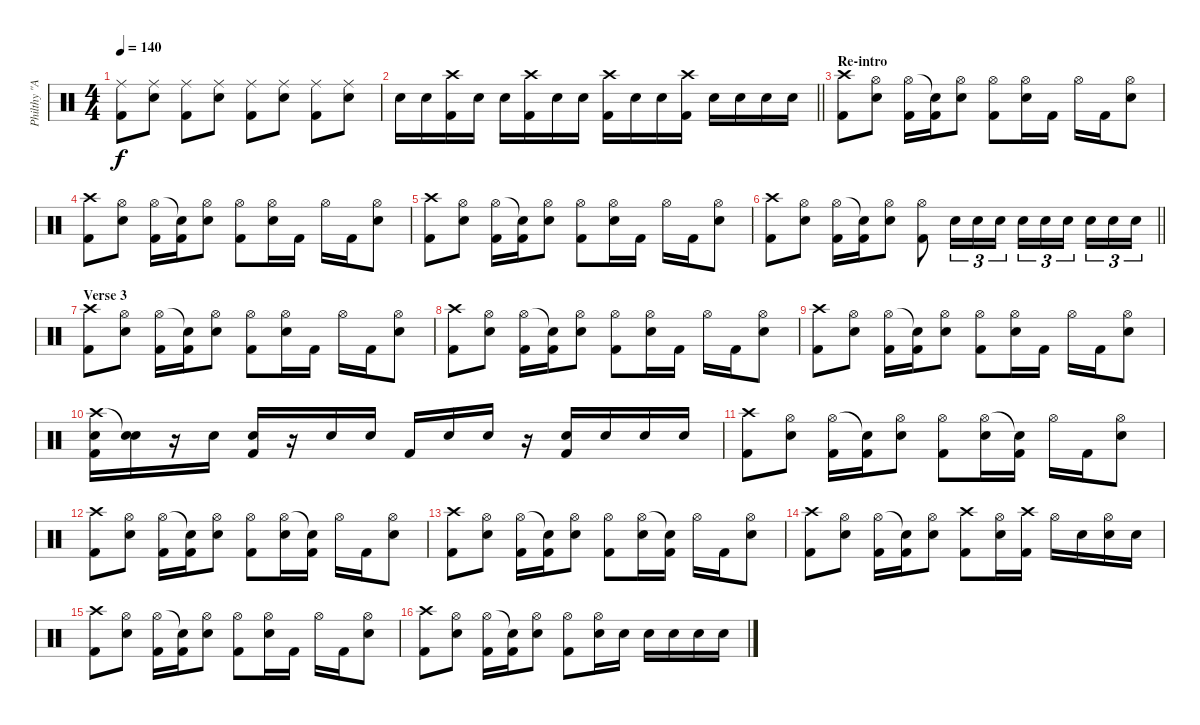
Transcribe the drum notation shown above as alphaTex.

\track ("Philthy \"Animal\" Taylor (drums)" "Philthy \"A") {instrument percussion}
\staff {score}
\articulation defaults
\ts (4 4)
\tempo 140
\clef neutral
\ks c
("Ride (middle)" "Kick (hit) 2").8{dy f} ("Ride (middle)" "Electric Snare (hit)").8 ("Ride (middle)" "Kick (hit) 2").8 ("Ride (middle)" "Electric Snare (hit)").8 ("Ride (middle)" "Kick (hit) 2").8 ("Ride (middle)" "Electric Snare (hit)").8 ("Ride (middle)" "Kick (hit) 2").8 ("Ride (middle)" "Electric Snare (hit)").8 |
\barLineRight lightlight "Electric Snare (hit)".16 "Electric Snare (hit)".16
("Crash high (hit)" "Kick (hit) 2").16 "Electric Snare (hit)".16 "Electric Snare (hit)".16 ("Crash high (hit)" "Kick (hit) 2").16 "Electric Snare (hit)".16 "Electric Snare (hit)".16 ("Crash high (hit)" "Kick (hit) 2").16 "Electric Snare (hit)".16 "Electric Snare (hit)".16 ("Crash high (hit)" "Kick (hit) 2").16 "Electric Snare (hit)".16 "Electric Snare (hit)".16 "Electric Snare (hit)".16 "Electric Snare (hit)".16 |
\section ("" "Re-intro")
("Crash high (hit)" "Kick (hit) 2").8 ("Hi-Hat (open)" "Electric Snare (hit)").8 ("Hi-Hat (open)" "Kick (hit) 2").16 ("Snare (hit)"{t} "Kick (hit) 2").16 ("Hi-Hat (open)" "Electric Snare (hit)").8 ("Hi-Hat (open)" "Kick (hit) 2").8 ("Hi-Hat (open)" "Electric Snare (hit)").16 "Kick (hit) 2".16 "Hi-Hat (open)".16 "Kick (hit) 2".16 ("Hi-Hat (open)" "Electric Snare (hit)").8 |
("Crash high (hit)" "Kick (hit) 2").8 ("Hi-Hat (open)" "Electric Snare (hit)").8 ("Hi-Hat (open)" "Kick (hit) 2").16 ("Snare (hit)"{t} "Kick (hit) 2").16 ("Hi-Hat (open)" "Electric Snare (hit)").8 ("Hi-Hat (open)" "Kick (hit) 2").8 ("Hi-Hat (open)" "Electric Snare (hit)").16 "Kick (hit) 2".16 "Hi-Hat (open)".16 "Kick (hit) 2".16 ("Hi-Hat (open)" "Electric Snare (hit)").8 |
("Crash high (hit)" "Kick (hit) 2").8 ("Hi-Hat (open)" "Electric Snare (hit)").8 ("Hi-Hat (open)" "Kick (hit) 2").16 ("Snare (hit)"{t} "Kick (hit) 2").16 ("Hi-Hat (open)" "Electric Snare (hit)").8 ("Hi-Hat (open)" "Kick (hit) 2").8 ("Hi-Hat (open)" "Electric Snare (hit)").16 "Kick (hit) 2".16 "Hi-Hat (open)".16 "Kick (hit) 2".16 ("Hi-Hat (open)" "Electric Snare (hit)").8 |
\barLineRight lightlight
("Crash high (hit)" "Kick (hit) 2").8 ("Hi-Hat (open)" "Electric Snare (hit)").8 ("Hi-Hat (open)" "Kick (hit) 2").16 ("Snare (hit)"{t} "Kick (hit) 2").16 ("Hi-Hat (open)" "Electric Snare (hit)").8 ("Hi-Hat (open)" "Kick (hit) 2").8 "Electric Snare (hit)".16{tu (3 2)} "Electric Snare (hit)".16{tu (3 2)} "Electric Snare (hit)".16{tu (3 2)} "Electric Snare (hit)".16{tu (3 2)} "Electric Snare (hit)".16{tu (3 2)} "Electric Snare (hit)".16{tu (3 2) beam splitsecondary} "Electric Snare (hit)".16{tu (3 2)} "Electric Snare (hit)".16{tu (3 2)} "Electric Snare (hit)".16{tu (3 2)} |
\section ("" "Verse 3")
("Crash high (hit)" "Kick (hit) 2").8 ("Hi-Hat (open)" "Electric Snare (hit)").8 ("Hi-Hat (open)" "Kick (hit) 2").16 ("Snare (hit)"{t} "Kick (hit) 2").16 ("Hi-Hat (open)" "Electric Snare (hit)").8 ("Hi-Hat (open)" "Kick (hit) 2").8 ("Hi-Hat (open)" "Electric Snare (hit)").16 "Kick (hit) 2".16 "Hi-Hat (open)".16 "Kick (hit) 2".16 ("Hi-Hat (open)" "Electric Snare (hit)").8 |
("Crash high (hit)" "Kick (hit) 2").8 ("Hi-Hat (open)" "Electric Snare (hit)").8 ("Hi-Hat (open)" "Kick (hit) 2").16 ("Snare (hit)"{t} "Kick (hit) 2").16 ("Hi-Hat (open)" "Electric Snare (hit)").8 ("Hi-Hat (open)" "Kick (hit) 2").8 ("Hi-Hat (open)" "Electric Snare (hit)").16 "Kick (hit) 2".16 "Hi-Hat (open)".16 "Kick (hit) 2".16 ("Hi-Hat (open)" "Electric Snare (hit)").8 |
("Crash high (hit)" "Kick (hit) 2").8 ("Hi-Hat (open)" "Electric Snare (hit)").8 ("Hi-Hat (open)" "Kick (hit) 2").16 ("Snare (hit)"{t} "Kick (hit) 2").16 ("Hi-Hat (open)" "Electric Snare (hit)").8 ("Hi-Hat (open)" "Kick (hit) 2").8 ("Hi-Hat (open)" "Electric Snare (hit)").16 "Kick (hit) 2".16 "Hi-Hat (open)".16 "Kick (hit) 2".16 ("Hi-Hat (open)" "Electric Snare (hit)").8 |
("Crash high (hit)" "Electric Snare (hit)" "Kick (hit) 2").16 ("Snare (hit)"{t} "Electric Snare (hit)").16 r.16 "Electric Snare (hit)".16 ("Electric Snare (hit)" "Kick (hit) 2").16 r.16 "Electric Snare (hit)".16 "Electric Snare (hit)".16 "Kick (hit) 2".16 "Electric Snare (hit)".16 "Electric Snare (hit)".16 r.16 ("Electric Snare (hit)" "Kick (hit) 2").16 "Electric Snare (hit)".16 "Electric Snare (hit)".16 "Electric Snare (hit)".16 |
("Crash high (hit)" "Kick (hit) 2").8 ("Hi-Hat (open)" "Electric Snare (hit)").8 ("Hi-Hat (open)" "Kick (hit) 2").16 ("Snare (hit)"{t} "Kick (hit) 2").16 ("Hi-Hat (open)" "Electric Snare (hit)").8 ("Hi-Hat (open)" "Kick (hit) 2").8 ("Hi-Hat (open)" "Electric Snare (hit)").16 ("Snare (hit)"{t} "Kick (hit) 2").16 "Hi-Hat (open)".16 "Kick (hit) 2".16 ("Hi-Hat (open)" "Electric Snare (hit)").8 |
("Crash high (hit)" "Kick (hit) 2").8 ("Hi-Hat (open)" "Electric Snare (hit)").8 ("Hi-Hat (open)" "Kick (hit) 2").16 ("Snare (hit)"{t} "Kick (hit) 2").16 ("Hi-Hat (open)" "Electric Snare (hit)").8 ("Hi-Hat (open)" "Kick (hit) 2").8 ("Hi-Hat (open)" "Electric Snare (hit)").16 ("Snare (hit)"{t} "Kick (hit) 2").16 "Hi-Hat (open)".16 "Kick (hit) 2".16 ("Hi-Hat (open)" "Electric Snare (hit)").8 |
("Crash high (hit)" "Kick (hit) 2").8 ("Hi-Hat (open)" "Electric Snare (hit)").8 ("Hi-Hat (open)" "Kick (hit) 2").16 ("Snare (hit)"{t} "Kick (hit) 2").16 ("Hi-Hat (open)" "Electric Snare (hit)").8 ("Hi-Hat (open)" "Kick (hit) 2").8 ("Hi-Hat (open)" "Electric Snare (hit)").16 ("Snare (hit)"{t} "Kick (hit) 2").16 "Hi-Hat (open)".16 "Kick (hit) 2".16 ("Hi-Hat (open)" "Electric Snare (hit)").8 |
("Crash high (hit)" "Kick (hit) 2").8 ("Hi-Hat (open)" "Electric Snare (hit)").8 ("Hi-Hat (open)" "Kick (hit) 2").16 ("Snare (hit)"{t} "Kick (hit) 2").16 ("Hi-Hat (open)" "Electric Snare (hit)").8 ("Crash high (hit)" "Kick (hit) 2").8 ("Hi-Hat (open)" "Electric Snare (hit)").16 ("Crash high (hit)" "Kick (hit) 2").16 "Hi-Hat (open)".16 "Electric Snare (hit)".16 ("Hi-Hat (open)" "Electric Snare (hit)").16 "Electric Snare (hit)".16 |
("Crash high (hit)" "Kick (hit) 2").8 ("Hi-Hat (open)" "Electric Snare (hit)").8 ("Hi-Hat (open)" "Kick (hit) 2").16 ("Snare (hit)"{t} "Kick (hit) 2").16 ("Hi-Hat (open)" "Electric Snare (hit)").8 ("Hi-Hat (open)" "Kick (hit) 2").8 ("Hi-Hat (open)" "Electric Snare (hit)").16 "Kick (hit) 2".16 "Hi-Hat (open)".16 "Kick (hit) 2".16 ("Hi-Hat (open)" "Electric Snare (hit)").8 |
("Crash high (hit)" "Kick (hit) 2").8 ("Hi-Hat (open)" "Electric Snare (hit)").8 ("Hi-Hat (open)" "Kick (hit) 2").16 ("Snare (hit)"{t} "Kick (hit) 2").16 ("Hi-Hat (open)" "Electric Snare (hit)").8 ("Hi-Hat (open)" "Kick (hit) 2").8 ("Hi-Hat (open)" "Electric Snare (hit)").16 "Electric Snare (hit)".16 "Electric Snare (hit)".16 "Electric Snare (hit)".16 "Electric Snare (hit)".16 "Electric Snare (hit)".16
